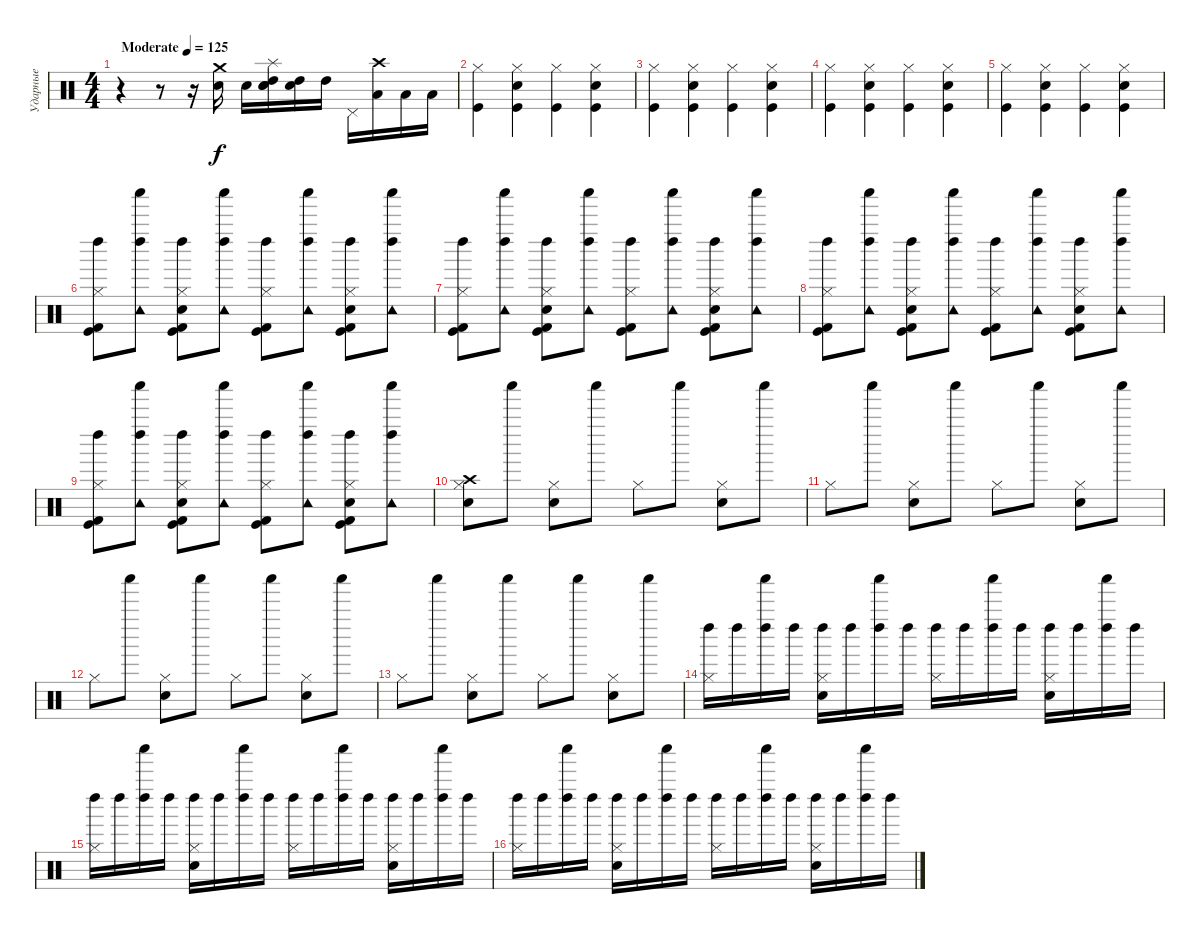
\track ("Ударные" "Ударные") {instrument percussion}
\staff {score}
\articulation defaults
\ts (4 4)
\tempo (125 "Moderate")
\clef neutral
\ks c
r.4{dy f} r.8 r.16 ("Hand Clap (hit)" "Crash medium (hit)").16 "Snare (hit) 2".16 ("Hand Clap (hit)" "Electric Snare (hit)" "High Tom (hit)" "Splash (hit)").16 ("Electric Snare (hit)" "High Tom (hit)").16 "High Tom (hit)".16 "Pedal Hi-Hat (hit)".16 ("Low Tom (hit)" "Crash high (hit)").16 "Low Tom (hit)".16 "Low Tom (hit)".16 |
("Kick (hit)" "Hi-Hat (closed)").4 ("Kick (hit)" "Hand Clap (hit)" "Hi-Hat (closed)").4 ("Kick (hit)" "Hi-Hat (closed)").4 ("Kick (hit)" "Hand Clap (hit)" "Hi-Hat (closed)").4 |
("Kick (hit)" "Hi-Hat (closed)").4 ("Kick (hit)" "Hand Clap (hit)" "Hi-Hat (closed)").4 ("Kick (hit)" "Hi-Hat (closed)").4 ("Kick (hit)" "Hand Clap (hit)" "Hi-Hat (closed)").4 |
("Kick (hit)" "Hi-Hat (closed)").4 ("Kick (hit)" "Hand Clap (hit)" "Hi-Hat (closed)").4 ("Kick (hit)" "Hi-Hat (closed)").4 ("Kick (hit)" "Hand Clap (hit)" "Hi-Hat (closed)").4 |
("Kick (hit)" "Hi-Hat (closed)").4 ("Kick (hit)" "Hand Clap (hit)" "Hi-Hat (closed)").4 ("Kick (hit)" "Hi-Hat (closed)").4 ("Kick (hit)" "Hand Clap (hit)" "Hi-Hat (closed)").4 |
("Kick (hit)" "Kick (hit) 2" "Hi-Hat (closed)" "Left Maraca (hit)").8 ("Tambourine (hit)" "Shaker (hit)" "Left Maraca (hit)").8 ("Kick (hit)" "Hand Clap (hit)" "Kick (hit) 2" "Hi-Hat (closed)" "Left Maraca (hit)").8 ("Tambourine (hit)" "Shaker (hit)" "Left Maraca (hit)").8 ("Kick (hit)" "Kick (hit) 2" "Hi-Hat (closed)" "Left Maraca (hit)").8 ("Tambourine (hit)" "Shaker (hit)" "Left Maraca (hit)").8 ("Kick (hit)" "Hand Clap (hit)" "Kick (hit) 2" "Hi-Hat (closed)" "Left Maraca (hit)").8 ("Tambourine (hit)" "Shaker (hit)" "Left Maraca (hit)").8 |
("Kick (hit)" "Kick (hit) 2" "Hi-Hat (closed)" "Left Maraca (hit)").8 ("Tambourine (hit)" "Shaker (hit)" "Left Maraca (hit)").8 ("Kick (hit)" "Hand Clap (hit)" "Kick (hit) 2" "Hi-Hat (closed)" "Left Maraca (hit)").8 ("Tambourine (hit)" "Shaker (hit)" "Left Maraca (hit)").8 ("Kick (hit)" "Kick (hit) 2" "Hi-Hat (closed)" "Left Maraca (hit)").8 ("Tambourine (hit)" "Shaker (hit)" "Left Maraca (hit)").8 ("Kick (hit)" "Hand Clap (hit)" "Kick (hit) 2" "Hi-Hat (closed)" "Left Maraca (hit)").8 ("Tambourine (hit)" "Shaker (hit)" "Left Maraca (hit)").8 |
("Kick (hit)" "Kick (hit) 2" "Hi-Hat (closed)" "Left Maraca (hit)").8 ("Tambourine (hit)" "Shaker (hit)" "Left Maraca (hit)").8 ("Kick (hit)" "Hand Clap (hit)" "Kick (hit) 2" "Hi-Hat (closed)" "Left Maraca (hit)").8 ("Tambourine (hit)" "Shaker (hit)" "Left Maraca (hit)").8 ("Kick (hit)" "Kick (hit) 2" "Hi-Hat (closed)" "Left Maraca (hit)").8 ("Tambourine (hit)" "Shaker (hit)" "Left Maraca (hit)").8 ("Kick (hit)" "Hand Clap (hit)" "Kick (hit) 2" "Hi-Hat (closed)" "Left Maraca (hit)").8 ("Tambourine (hit)" "Shaker (hit)" "Left Maraca (hit)").8 |
("Kick (hit)" "Kick (hit) 2" "Hi-Hat (closed)" "Left Maraca (hit)").8 ("Tambourine (hit)" "Shaker (hit)" "Left Maraca (hit)").8 ("Kick (hit)" "Hand Clap (hit)" "Kick (hit) 2" "Hi-Hat (closed)" "Left Maraca (hit)").8 ("Tambourine (hit)" "Shaker (hit)" "Left Maraca (hit)").8 ("Kick (hit)" "Kick (hit) 2" "Hi-Hat (closed)" "Left Maraca (hit)").8 ("Tambourine (hit)" "Shaker (hit)" "Left Maraca (hit)").8 ("Kick (hit)" "Hand Clap (hit)" "Kick (hit) 2" "Hi-Hat (closed)" "Left Maraca (hit)").8 ("Tambourine (hit)" "Shaker (hit)" "Left Maraca (hit)").8 |
("Crash high (hit)" "Snare (hit)" "Hi-Hat (closed)").8 "Shaker (hit)".8 ("Hand Clap (hit)" "Hi-Hat (closed)").8 "Shaker (hit)".8 "Hi-Hat (closed)".8 "Shaker (hit)".8 ("Hand Clap (hit)" "Hi-Hat (closed)").8 "Shaker (hit)".8 |
"Hi-Hat (closed)".8 "Shaker (hit)".8 ("Hand Clap (hit)" "Hi-Hat (closed)").8 "Shaker (hit)".8 "Hi-Hat (closed)".8 "Shaker (hit)".8 ("Hand Clap (hit)" "Hi-Hat (closed)").8 "Shaker (hit)".8 |
"Hi-Hat (closed)".8 "Shaker (hit)".8 ("Hand Clap (hit)" "Hi-Hat (closed)").8 "Shaker (hit)".8 "Hi-Hat (closed)".8 "Shaker (hit)".8 ("Hand Clap (hit)" "Hi-Hat (closed)").8 "Shaker (hit)".8 |
"Hi-Hat (closed)".8 "Shaker (hit)".8 ("Hand Clap (hit)" "Hi-Hat (closed)").8 "Shaker (hit)".8 "Hi-Hat (closed)".8 "Shaker (hit)".8 ("Hand Clap (hit)" "Hi-Hat (closed)").8 "Shaker (hit)".8 |
("Hi-Hat (closed)" "Left Maraca (hit)").16 "Left Maraca (hit)".16 ("Shaker (hit)" "Left Maraca (hit)").16 "Left Maraca (hit)".16 ("Hand Clap (hit)" "Hi-Hat (closed)" "Left Maraca (hit)").16 "Left Maraca (hit)".16 ("Shaker (hit)" "Left Maraca (hit)").16 "Left Maraca (hit)".16 ("Hi-Hat (closed)" "Left Maraca (hit)").16 "Left Maraca (hit)".16 ("Shaker (hit)" "Left Maraca (hit)").16 "Left Maraca (hit)".16 ("Hand Clap (hit)" "Hi-Hat (closed)" "Left Maraca (hit)").16 "Left Maraca (hit)".16 ("Shaker (hit)" "Left Maraca (hit)").16 "Left Maraca (hit)".16 |
("Hi-Hat (closed)" "Left Maraca (hit)").16 "Left Maraca (hit)".16 ("Shaker (hit)" "Left Maraca (hit)").16 "Left Maraca (hit)".16 ("Hand Clap (hit)" "Hi-Hat (closed)" "Left Maraca (hit)").16 "Left Maraca (hit)".16 ("Shaker (hit)" "Left Maraca (hit)").16 "Left Maraca (hit)".16 ("Hi-Hat (closed)" "Left Maraca (hit)").16 "Left Maraca (hit)".16 ("Shaker (hit)" "Left Maraca (hit)").16 "Left Maraca (hit)".16 ("Hand Clap (hit)" "Hi-Hat (closed)" "Left Maraca (hit)").16 "Left Maraca (hit)".16 ("Shaker (hit)" "Left Maraca (hit)").16 "Left Maraca (hit)".16 |
("Hi-Hat (closed)" "Left Maraca (hit)").16 "Left Maraca (hit)".16 ("Shaker (hit)" "Left Maraca (hit)").16 "Left Maraca (hit)".16 ("Hand Clap (hit)" "Hi-Hat (closed)" "Left Maraca (hit)").16 "Left Maraca (hit)".16 ("Shaker (hit)" "Left Maraca (hit)").16 "Left Maraca (hit)".16 ("Hi-Hat (closed)" "Left Maraca (hit)").16 "Left Maraca (hit)".16 ("Shaker (hit)" "Left Maraca (hit)").16 "Left Maraca (hit)".16 ("Hand Clap (hit)" "Hi-Hat (closed)" "Left Maraca (hit)").16 "Left Maraca (hit)".16 ("Shaker (hit)" "Left Maraca (hit)").16 "Left Maraca (hit)".16
